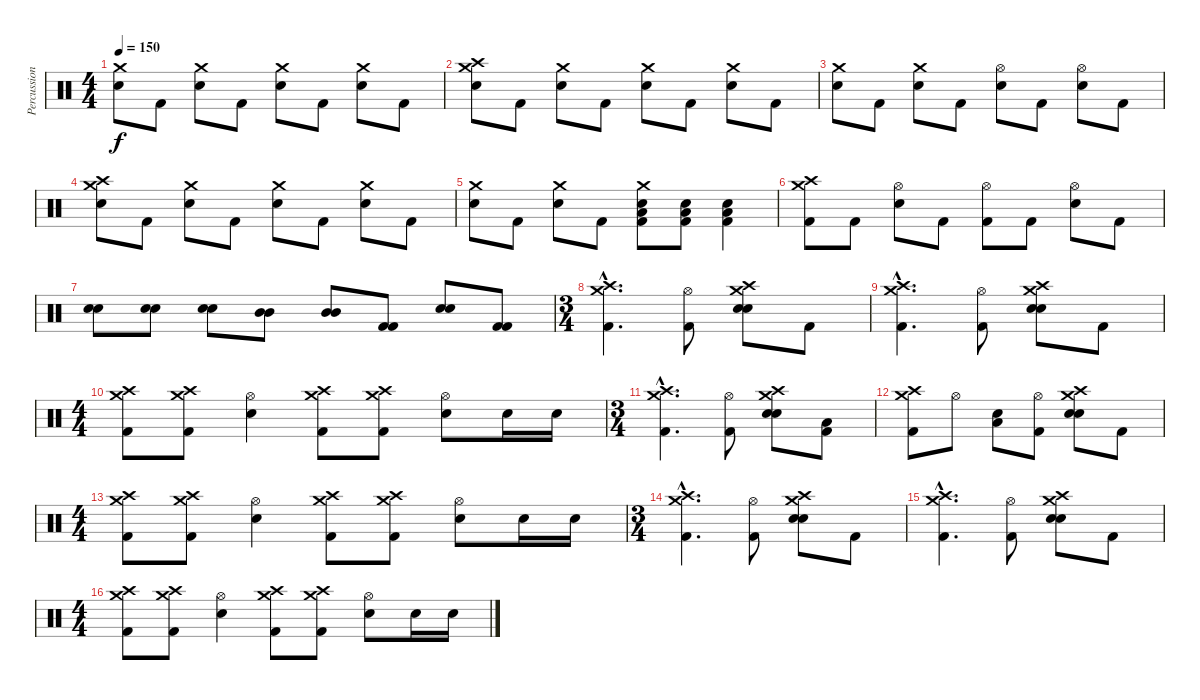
\track ("Percussion" "Percussion") {instrument percussion}
\staff {score}
\articulation defaults
\ts (4 4)
\tempo 150
\clef neutral
\ks c
("Crash medium (hit)" "Snare (hit) 2").8{dy f} "Kick (hit) 2".8 ("Crash medium (hit)" "Snare (hit) 2").8 "Kick (hit) 2".8 ("Crash medium (hit)" "Snare (hit) 2").8 "Kick (hit) 2".8 ("Crash medium (hit)" "Snare (hit) 2").8 "Kick (hit) 2".8 |
("Crash medium (hit)" "Crash high (hit)" "Snare (hit) 2").8 "Kick (hit) 2".8 ("Crash medium (hit)" "Snare (hit) 2").8 "Kick (hit) 2".8 ("Crash medium (hit)" "Snare (hit) 2").8 "Kick (hit) 2".8 ("Crash medium (hit)" "Snare (hit) 2").8 "Kick (hit) 2".8 |
("Crash medium (hit)" "Snare (hit) 2").8 "Kick (hit) 2".8 ("Crash medium (hit)" "Snare (hit) 2").8 "Kick (hit) 2".8 ("Hi-Hat (open)" "Snare (hit) 2").8 "Kick (hit) 2".8 ("Hi-Hat (open)" "Snare (hit) 2").8 "Kick (hit) 2".8 |
("Crash medium (hit)" "Crash high (hit)" "Snare (hit) 2").8 "Kick (hit) 2".8 ("Crash medium (hit)" "Snare (hit) 2").8 "Kick (hit) 2".8 ("Crash medium (hit)" "Snare (hit) 2").8 "Kick (hit) 2".8 ("Crash medium (hit)" "Snare (hit) 2").8 "Kick (hit) 2".8 |
("Crash medium (hit)" "Snare (hit) 2").8 "Kick (hit) 2".8 ("Crash medium (hit)" "Snare (hit) 2").8 "Kick (hit) 2".8 ("Crash medium (hit)" "Low Floor Tom (hit)" "Kick (hit) 2" "Snare (hit) 2").8 ("Low Floor Tom (hit)" "Kick (hit) 2" "Snare (hit) 2").8 ("Low Floor Tom (hit)" "Kick (hit) 2" "Snare (hit) 2").4 |
("Crash high (hit)" "Crash medium (hit)" "Kick (hit) 2").8 "Kick (hit) 2".8 ("Hi-Hat (open)" "Snare (hit) 2").8 "Kick (hit) 2".8 ("Hi-Hat (open)" "Kick (hit) 2").8 "Kick (hit) 2".8 ("Hi-Hat (open)" "Snare (hit) 2").8 "Kick (hit) 2".8 |
("Snare (hit) 2" "Snare (hit) 2").8 ("Snare (hit) 2" "Snare (hit) 2").8 ("Snare (hit) 2" "Snare (hit) 2").8 ("Mid Tom (hit)" "Mid Tom (hit)").8 ("Mid Tom (hit)" "Mid Tom (hit)").8 ("Kick (hit) 2" "Kick (hit) 2").8 ("Snare (hit) 2" "Snare (hit) 2").8 ("Kick (hit) 2" "Kick (hit) 2").8 |
\ts (3 4)
("Crash medium (hit)"{hac} "Crash high (hit)"{hac} "Kick (hit) 2"{hac}).4{d} ("Hi-Hat (open)" "Kick (hit) 2").8 ("Crash high (hit)" "Crash medium (hit)" "Snare (hit) 2" "Snare (hit) 2").8 "Kick (hit) 2".8 |
("Crash medium (hit)"{hac} "Crash high (hit)"{hac} "Kick (hit) 2"{hac}).4{d} ("Hi-Hat (open)" "Kick (hit) 2").8 ("Crash high (hit)" "Crash medium (hit)" "Snare (hit) 2" "Snare (hit) 2").8 "Kick (hit) 2".8 |
\ts (4 4)
("Crash medium (hit)" "Crash high (hit)" "Kick (hit) 2").8 ("Crash medium (hit)" "Crash high (hit)" "Kick (hit) 2").8 ("Hi-Hat (open)" "Snare (hit) 2").4 ("Crash medium (hit)" "Crash high (hit)" "Kick (hit) 2").8 ("Crash medium (hit)" "Crash high (hit)" "Kick (hit) 2").8 ("Hi-Hat (open)" "Snare (hit) 2").8 "Snare (hit) 2".16 "Snare (hit) 2".16 |
\ts (3 4)
("Crash medium (hit)"{hac} "Crash high (hit)"{hac} "Kick (hit) 2"{hac}).4{d} ("Hi-Hat (open)" "Kick (hit) 2").8 ("Crash high (hit)" "Crash medium (hit)" "Snare (hit) 2" "Snare (hit) 2").8 ("Low Floor Tom (hit)" "Kick (hit) 2").8 |
("Crash medium (hit)" "Crash high (hit)" "Kick (hit) 2").8 "Hi-Hat (open)".8 ("Low Floor Tom (hit)" "Snare (hit) 2").8 ("Hi-Hat (open)" "Kick (hit) 2").8 ("Crash high (hit)" "Crash medium (hit)" "Snare (hit) 2" "Snare (hit) 2").8 "Kick (hit) 2".8 |
\ts (4 4)
("Crash medium (hit)" "Crash high (hit)" "Kick (hit) 2").8 ("Crash medium (hit)" "Crash high (hit)" "Kick (hit) 2").8 ("Hi-Hat (open)" "Snare (hit) 2").4 ("Crash medium (hit)" "Crash high (hit)" "Kick (hit) 2").8 ("Crash medium (hit)" "Crash high (hit)" "Kick (hit) 2").8 ("Hi-Hat (open)" "Snare (hit) 2").8 "Snare (hit) 2".16 "Snare (hit) 2".16 |
\ts (3 4)
("Crash medium (hit)"{hac} "Crash high (hit)"{hac} "Kick (hit) 2"{hac}).4{d} ("Hi-Hat (open)" "Kick (hit) 2").8 ("Crash high (hit)" "Crash medium (hit)" "Snare (hit) 2" "Snare (hit) 2").8 "Kick (hit) 2".8 |
("Crash medium (hit)"{hac} "Crash high (hit)"{hac} "Kick (hit) 2"{hac}).4{d} ("Hi-Hat (open)" "Kick (hit) 2").8 ("Crash high (hit)" "Crash medium (hit)" "Snare (hit) 2" "Snare (hit) 2").8 "Kick (hit) 2".8 |
\ts (4 4)
("Crash medium (hit)" "Crash high (hit)" "Kick (hit) 2").8 ("Crash medium (hit)" "Crash high (hit)" "Kick (hit) 2").8 ("Hi-Hat (open)" "Snare (hit) 2").4 ("Crash medium (hit)" "Crash high (hit)" "Kick (hit) 2").8 ("Crash medium (hit)" "Crash high (hit)" "Kick (hit) 2").8 ("Hi-Hat (open)" "Snare (hit) 2").8 "Snare (hit) 2".16 "Snare (hit) 2".16
